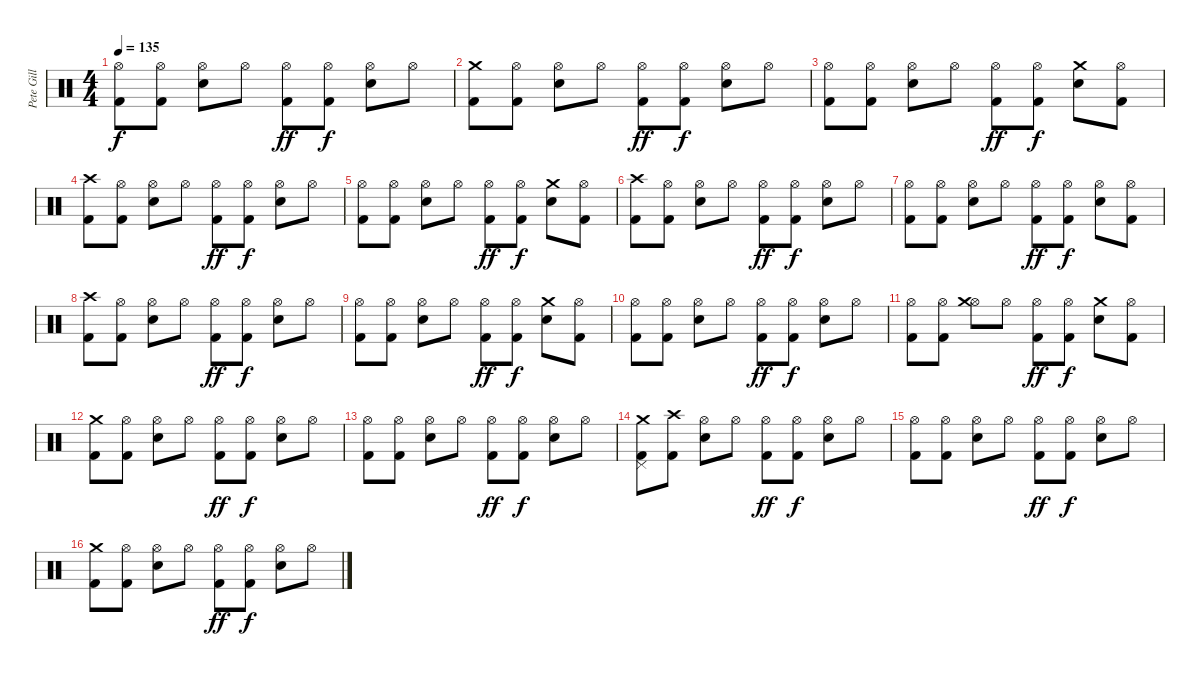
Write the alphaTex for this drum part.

\track ("Pete Gill" "Pete Gill") {instrument percussion}
\staff {score}
\articulation defaults
\ts (4 4)
\tempo 135
\clef neutral
\ks c
("Hi-Hat (open)" "Kick (hit) 2").8{dy f} ("Hi-Hat (open)" "Kick (hit) 2").8 ("Hi-Hat (open)" "Snare (hit) 2").8 "Hi-Hat (open)".8 ("Hi-Hat (open)" "Kick (hit) 2").8{dy ff} ("Hi-Hat (open)" "Kick (hit) 2").8{dy f} ("Hi-Hat (open)" "Snare (hit) 2").8 "Hi-Hat (open)".8 |
("Crash medium (hit)" "Kick (hit) 2").8 ("Hi-Hat (open)" "Kick (hit) 2").8 ("Hi-Hat (open)" "Snare (hit) 2").8 "Hi-Hat (open)".8 ("Hi-Hat (open)" "Kick (hit) 2").8{dy ff} ("Hi-Hat (open)" "Kick (hit) 2").8{dy f} ("Hi-Hat (open)" "Snare (hit) 2").8 "Hi-Hat (open)".8 |
("Hi-Hat (open)" "Kick (hit) 2").8 ("Hi-Hat (open)" "Kick (hit) 2").8 ("Hi-Hat (open)" "Snare (hit) 2").8 "Hi-Hat (open)".8 ("Hi-Hat (open)" "Kick (hit) 2").8{dy ff} ("Hi-Hat (open)" "Kick (hit) 2").8{dy f} ("Crash medium (hit)" "Snare (hit) 2").8 ("Hi-Hat (open)" "Kick (hit) 2").8 |
("Crash high (hit)" "Kick (hit) 2").8 ("Hi-Hat (open)" "Kick (hit) 2").8 ("Hi-Hat (open)" "Snare (hit) 2").8 "Hi-Hat (open)".8 ("Hi-Hat (open)" "Kick (hit) 2").8{dy ff} ("Hi-Hat (open)" "Kick (hit) 2").8{dy f} ("Hi-Hat (open)" "Snare (hit) 2").8 "Hi-Hat (open)".8 |
("Hi-Hat (open)" "Kick (hit) 2").8 ("Hi-Hat (open)" "Kick (hit) 2").8 ("Hi-Hat (open)" "Snare (hit) 2").8 "Hi-Hat (open)".8 ("Hi-Hat (open)" "Kick (hit) 2").8{dy ff} ("Hi-Hat (open)" "Kick (hit) 2").8{dy f} ("Crash medium (hit)" "Snare (hit) 2").8 ("Hi-Hat (open)" "Kick (hit) 2").8 |
("Crash high (hit)" "Kick (hit) 2").8 ("Hi-Hat (open)" "Kick (hit) 2").8 ("Hi-Hat (open)" "Snare (hit) 2").8 "Hi-Hat (open)".8 ("Hi-Hat (open)" "Kick (hit) 2").8{dy ff} ("Hi-Hat (open)" "Kick (hit) 2").8{dy f} ("Hi-Hat (open)" "Snare (hit) 2").8 "Hi-Hat (open)".8 |
("Hi-Hat (open)" "Kick (hit) 2").8 ("Hi-Hat (open)" "Kick (hit) 2").8 ("Hi-Hat (open)" "Snare (hit) 2").8 "Hi-Hat (open)".8 ("Hi-Hat (open)" "Kick (hit) 2").8{dy ff} ("Hi-Hat (open)" "Kick (hit) 2").8{dy f} ("Hi-Hat (open)" "Snare (hit) 2").8 ("Hi-Hat (open)" "Kick (hit) 2").8 |
("Crash high (hit)" "Kick (hit) 2").8 ("Hi-Hat (open)" "Kick (hit) 2").8 ("Hi-Hat (open)" "Snare (hit) 2").8 "Hi-Hat (open)".8 ("Hi-Hat (open)" "Kick (hit) 2").8{dy ff} ("Hi-Hat (open)" "Kick (hit) 2").8{dy f} ("Hi-Hat (open)" "Snare (hit) 2").8 "Hi-Hat (open)".8 |
("Hi-Hat (open)" "Kick (hit) 2").8 ("Hi-Hat (open)" "Kick (hit) 2").8 ("Hi-Hat (open)" "Snare (hit) 2").8 "Hi-Hat (open)".8 ("Hi-Hat (open)" "Kick (hit) 2").8{dy ff} ("Hi-Hat (open)" "Kick (hit) 2").8{dy f} ("Crash medium (hit)" "Snare (hit) 2").8 ("Hi-Hat (open)" "Kick (hit) 2").8 |
("Hi-Hat (open)" "Kick (hit) 2").8 ("Hi-Hat (open)" "Kick (hit) 2").8 ("Hi-Hat (open)" "Snare (hit) 2").8 "Hi-Hat (open)".8 ("Hi-Hat (open)" "Kick (hit) 2").8{dy ff} ("Hi-Hat (open)" "Kick (hit) 2").8{dy f} ("Hi-Hat (open)" "Snare (hit) 2").8 "Hi-Hat (open)".8 |
("Hi-Hat (open)" "Kick (hit) 2").8 ("Hi-Hat (open)" "Kick (hit) 2").8 ("Hi-Hat (open)" "Crash medium (hit)").8 "Hi-Hat (open)".8 ("Hi-Hat (open)" "Kick (hit) 2").8{dy ff} ("Hi-Hat (open)" "Kick (hit) 2").8{dy f} ("Crash medium (hit)" "Snare (hit) 2").8 ("Hi-Hat (open)" "Kick (hit) 2").8 |
("Kick (hit) 2" "Crash medium (hit)").8 ("Hi-Hat (open)" "Kick (hit) 2").8 ("Hi-Hat (open)" "Snare (hit) 2").8 "Hi-Hat (open)".8 ("Hi-Hat (open)" "Kick (hit) 2").8{dy ff} ("Hi-Hat (open)" "Kick (hit) 2").8{dy f} ("Hi-Hat (open)" "Snare (hit) 2").8 "Hi-Hat (open)".8 |
("Hi-Hat (open)" "Kick (hit) 2").8 ("Hi-Hat (open)" "Kick (hit) 2").8 ("Hi-Hat (open)" "Snare (hit) 2").8 "Hi-Hat (open)".8 ("Hi-Hat (open)" "Kick (hit) 2").8{dy ff} ("Hi-Hat (open)" "Kick (hit) 2").8{dy f} ("Hi-Hat (open)" "Snare (hit) 2").8 "Hi-Hat (open)".8 |
("Kick (hit) 2" "Pedal Hi-Hat (hit)" "Crash medium (hit)").8 ("Kick (hit) 2" "Crash high (hit)").8 ("Hi-Hat (open)" "Snare (hit) 2").8 "Hi-Hat (open)".8 ("Hi-Hat (open)" "Kick (hit) 2").8{dy ff} ("Hi-Hat (open)" "Kick (hit) 2").8{dy f} ("Hi-Hat (open)" "Snare (hit) 2").8 "Hi-Hat (open)".8 |
("Hi-Hat (open)" "Kick (hit) 2").8 ("Hi-Hat (open)" "Kick (hit) 2").8 ("Hi-Hat (open)" "Snare (hit) 2").8 "Hi-Hat (open)".8 ("Hi-Hat (open)" "Kick (hit) 2").8{dy ff} ("Hi-Hat (open)" "Kick (hit) 2").8{dy f} ("Hi-Hat (open)" "Snare (hit) 2").8 "Hi-Hat (open)".8 |
("Crash medium (hit)" "Kick (hit) 2").8 ("Hi-Hat (open)" "Kick (hit) 2").8 ("Hi-Hat (open)" "Snare (hit) 2").8 "Hi-Hat (open)".8 ("Hi-Hat (open)" "Kick (hit) 2").8{dy ff} ("Hi-Hat (open)" "Kick (hit) 2").8{dy f} ("Hi-Hat (open)" "Snare (hit) 2").8 "Hi-Hat (open)".8
